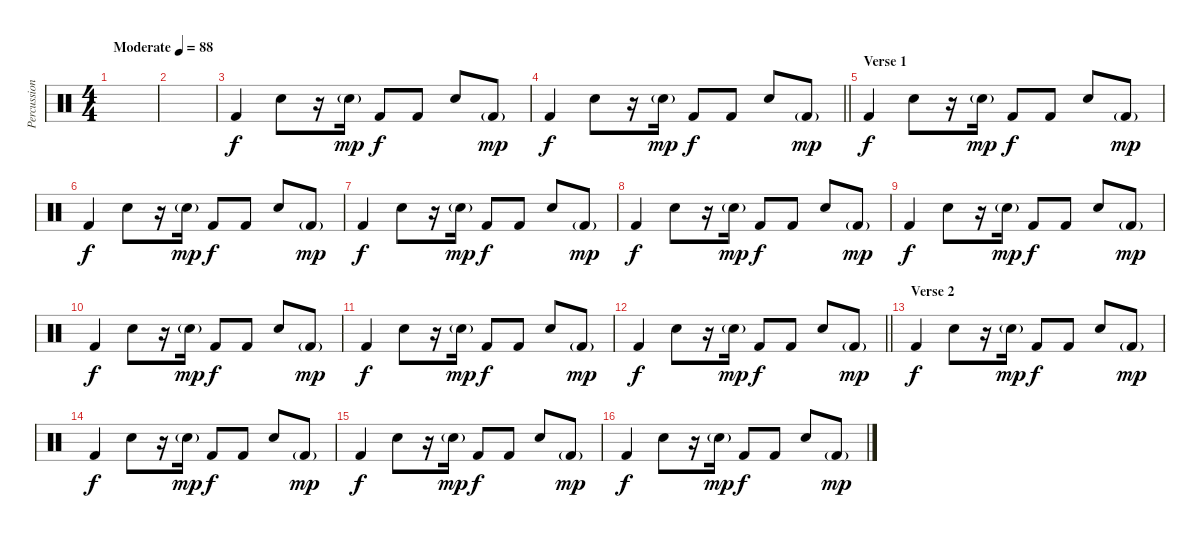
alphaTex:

\track ("Percussion" "Percussion") {instrument percussion}
\staff {score}
\articulation defaults
\ts (4 4)
\tempo (88 "Moderate")
\clef neutral
\ks c
|
|
"Kick (hit) 2".4 "Snare (hit) 2".8 r.16 "Snare (hit) 2"{g}.16{dy mp} "Kick (hit) 2".8{dy f} "Kick (hit) 2".8 "Snare (hit) 2".8 "Kick (hit) 2"{g}.8{dy mp} |
\barLineRight lightlight "Kick (hit) 2".4{dy f} "Snare (hit) 2".8
r.16 "Snare (hit) 2"{g}.16{dy mp} "Kick (hit) 2".8{dy f} "Kick (hit) 2".8 "Snare (hit) 2".8 "Kick (hit) 2"{g}.8{dy mp} |
\section ("" "Verse 1")
"Kick (hit) 2".4{dy f} "Snare (hit) 2".8 r.16 "Snare (hit) 2"{g}.16{dy mp} "Kick (hit) 2".8{dy f} "Kick (hit) 2".8 "Snare (hit) 2".8 "Kick (hit) 2"{g}.8{dy mp} |
"Kick (hit) 2".4{dy f} "Snare (hit) 2".8 r.16 "Snare (hit) 2"{g}.16{dy mp} "Kick (hit) 2".8{dy f} "Kick (hit) 2".8 "Snare (hit) 2".8 "Kick (hit) 2"{g}.8{dy mp} |
"Kick (hit) 2".4{dy f} "Snare (hit) 2".8 r.16 "Snare (hit) 2"{g}.16{dy mp} "Kick (hit) 2".8{dy f} "Kick (hit) 2".8 "Snare (hit) 2".8 "Kick (hit) 2"{g}.8{dy mp} |
"Kick (hit) 2".4{dy f} "Snare (hit) 2".8 r.16 "Snare (hit) 2"{g}.16{dy mp} "Kick (hit) 2".8{dy f} "Kick (hit) 2".8 "Snare (hit) 2".8 "Kick (hit) 2"{g}.8{dy mp} |
"Kick (hit) 2".4{dy f} "Snare (hit) 2".8 r.16 "Snare (hit) 2"{g}.16{dy mp} "Kick (hit) 2".8{dy f} "Kick (hit) 2".8 "Snare (hit) 2".8 "Kick (hit) 2"{g}.8{dy mp} |
"Kick (hit) 2".4{dy f} "Snare (hit) 2".8 r.16 "Snare (hit) 2"{g}.16{dy mp} "Kick (hit) 2".8{dy f} "Kick (hit) 2".8 "Snare (hit) 2".8 "Kick (hit) 2"{g}.8{dy mp} |
"Kick (hit) 2".4{dy f} "Snare (hit) 2".8 r.16 "Snare (hit) 2"{g}.16{dy mp} "Kick (hit) 2".8{dy f} "Kick (hit) 2".8 "Snare (hit) 2".8 "Kick (hit) 2"{g}.8{dy mp} |
\barLineRight lightlight "Kick (hit) 2".4{dy f} "Snare (hit) 2".8
r.16 "Snare (hit) 2"{g}.16{dy mp} "Kick (hit) 2".8{dy f} "Kick (hit) 2".8 "Snare (hit) 2".8 "Kick (hit) 2"{g}.8{dy mp} |
\section ("" "Verse 2")
"Kick (hit) 2".4{dy f} "Snare (hit) 2".8 r.16 "Snare (hit) 2"{g}.16{dy mp} "Kick (hit) 2".8{dy f} "Kick (hit) 2".8 "Snare (hit) 2".8 "Kick (hit) 2"{g}.8{dy mp} |
"Kick (hit) 2".4{dy f} "Snare (hit) 2".8 r.16 "Snare (hit) 2"{g}.16{dy mp} "Kick (hit) 2".8{dy f} "Kick (hit) 2".8 "Snare (hit) 2".8 "Kick (hit) 2"{g}.8{dy mp} |
"Kick (hit) 2".4{dy f} "Snare (hit) 2".8 r.16 "Snare (hit) 2"{g}.16{dy mp} "Kick (hit) 2".8{dy f} "Kick (hit) 2".8 "Snare (hit) 2".8 "Kick (hit) 2"{g}.8{dy mp} |
"Kick (hit) 2".4{dy f} "Snare (hit) 2".8 r.16 "Snare (hit) 2"{g}.16{dy mp} "Kick (hit) 2".8{dy f} "Kick (hit) 2".8 "Snare (hit) 2".8 "Kick (hit) 2"{g}.8{dy mp}
